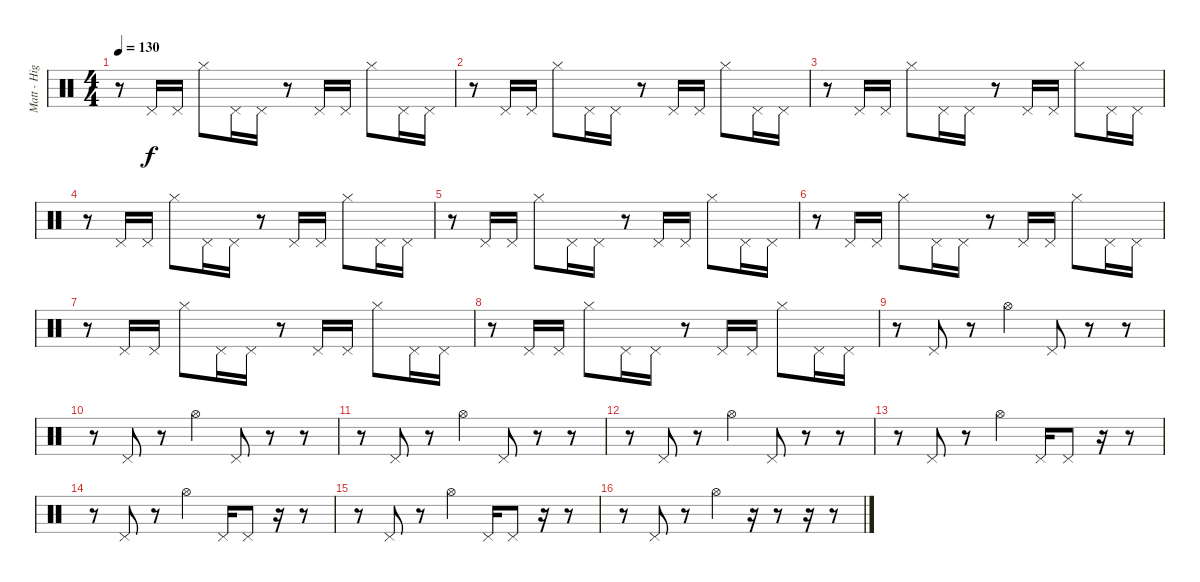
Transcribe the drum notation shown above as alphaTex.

\track ("Matt - High Hat" "Matt - Hig") {instrument percussion}
\staff {score}
\articulation defaults
\ts (4 4)
\tempo 130
\clef neutral
\ks c
r.8{dy f} "Pedal Hi-Hat (hit)".16 "Pedal Hi-Hat (hit)".16 "Hi-Hat (closed)".8 "Pedal Hi-Hat (hit)".16 "Pedal Hi-Hat (hit)".16 r.8 "Pedal Hi-Hat (hit)".16 "Pedal Hi-Hat (hit)".16 "Hi-Hat (closed)".8 "Pedal Hi-Hat (hit)".16 "Pedal Hi-Hat (hit)".16 |
r.8 "Pedal Hi-Hat (hit)".16 "Pedal Hi-Hat (hit)".16 "Hi-Hat (closed)".8 "Pedal Hi-Hat (hit)".16 "Pedal Hi-Hat (hit)".16 r.8 "Pedal Hi-Hat (hit)".16 "Pedal Hi-Hat (hit)".16 "Hi-Hat (closed)".8 "Pedal Hi-Hat (hit)".16 "Pedal Hi-Hat (hit)".16 |
r.8 "Pedal Hi-Hat (hit)".16 "Pedal Hi-Hat (hit)".16 "Hi-Hat (closed)".8 "Pedal Hi-Hat (hit)".16 "Pedal Hi-Hat (hit)".16 r.8 "Pedal Hi-Hat (hit)".16 "Pedal Hi-Hat (hit)".16 "Hi-Hat (closed)".8 "Pedal Hi-Hat (hit)".16 "Pedal Hi-Hat (hit)".16 |
r.8 "Pedal Hi-Hat (hit)".16 "Pedal Hi-Hat (hit)".16 "Hi-Hat (closed)".8 "Pedal Hi-Hat (hit)".16 "Pedal Hi-Hat (hit)".16 r.8 "Pedal Hi-Hat (hit)".16 "Pedal Hi-Hat (hit)".16 "Hi-Hat (closed)".8 "Pedal Hi-Hat (hit)".16 "Pedal Hi-Hat (hit)".16 |
r.8 "Pedal Hi-Hat (hit)".16 "Pedal Hi-Hat (hit)".16 "Hi-Hat (closed)".8 "Pedal Hi-Hat (hit)".16 "Pedal Hi-Hat (hit)".16 r.8 "Pedal Hi-Hat (hit)".16 "Pedal Hi-Hat (hit)".16 "Hi-Hat (closed)".8 "Pedal Hi-Hat (hit)".16 "Pedal Hi-Hat (hit)".16 |
r.8 "Pedal Hi-Hat (hit)".16 "Pedal Hi-Hat (hit)".16 "Hi-Hat (closed)".8 "Pedal Hi-Hat (hit)".16 "Pedal Hi-Hat (hit)".16 r.8 "Pedal Hi-Hat (hit)".16 "Pedal Hi-Hat (hit)".16 "Hi-Hat (closed)".8 "Pedal Hi-Hat (hit)".16 "Pedal Hi-Hat (hit)".16 |
r.8 "Pedal Hi-Hat (hit)".16 "Pedal Hi-Hat (hit)".16 "Hi-Hat (closed)".8 "Pedal Hi-Hat (hit)".16 "Pedal Hi-Hat (hit)".16 r.8 "Pedal Hi-Hat (hit)".16 "Pedal Hi-Hat (hit)".16 "Hi-Hat (closed)".8 "Pedal Hi-Hat (hit)".16 "Pedal Hi-Hat (hit)".16 |
r.8 "Pedal Hi-Hat (hit)".16 "Pedal Hi-Hat (hit)".16 "Hi-Hat (closed)".8 "Pedal Hi-Hat (hit)".16 "Pedal Hi-Hat (hit)".16 r.8 "Pedal Hi-Hat (hit)".16 "Pedal Hi-Hat (hit)".16 "Hi-Hat (closed)".8 "Pedal Hi-Hat (hit)".16 "Pedal Hi-Hat (hit)".16 |
r.8 "Pedal Hi-Hat (hit)".8 r.8 "Hi-Hat (open)".4 "Pedal Hi-Hat (hit)".8 r.8 r.8 |
r.8 "Pedal Hi-Hat (hit)".8 r.8 "Hi-Hat (open)".4 "Pedal Hi-Hat (hit)".8 r.8 r.8 |
r.8 "Pedal Hi-Hat (hit)".8 r.8 "Hi-Hat (open)".4 "Pedal Hi-Hat (hit)".8 r.8 r.8 |
r.8 "Pedal Hi-Hat (hit)".8 r.8 "Hi-Hat (open)".4 "Pedal Hi-Hat (hit)".8 r.8 r.8 |
r.8 "Pedal Hi-Hat (hit)".8 r.8 "Hi-Hat (open)".4 "Pedal Hi-Hat (hit)".16 "Pedal Hi-Hat (hit)".8 r.16 r.8 |
r.8 "Pedal Hi-Hat (hit)".8 r.8 "Hi-Hat (open)".4 "Pedal Hi-Hat (hit)".16 "Pedal Hi-Hat (hit)".8 r.16 r.8 |
r.8 "Pedal Hi-Hat (hit)".8 r.8 "Hi-Hat (open)".4 "Pedal Hi-Hat (hit)".16 "Pedal Hi-Hat (hit)".8 r.16 r.8 |
r.8 "Pedal Hi-Hat (hit)".8 r.8 "Hi-Hat (open)".4 r.16 r.8 r.16 r.8
